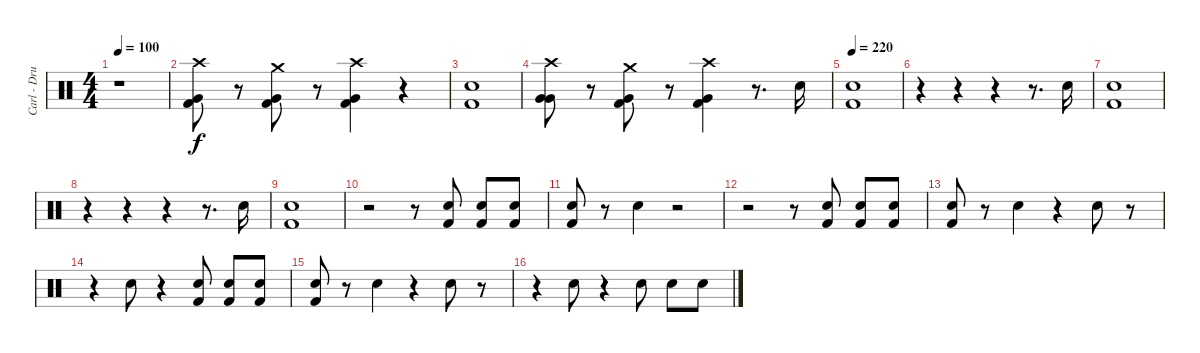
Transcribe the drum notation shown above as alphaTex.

\track ("Carl - Drums" "Carl - Dru") {instrument percussion}
\staff {score}
\articulation defaults
\ts (4 4)
\tempo 100
\tempo 140
\tempo 100
\clef neutral
\ks c
r.1{dy f} |
("Crash high (hit)" "Very Low Tom (hit)" "Kick (hit) 2").8 r.8 ("Crash medium (hit)" "Very Low Tom (hit)" "Kick (hit) 2").8 r.8 ("Crash high (hit)" "Very Low Tom (hit)" "Kick (hit) 2").4 r.4 |
("Electric Snare (hit)" "Kick (hit) 2").1 |
("Crash high (hit)" "Very Low Tom (hit)" "Very Low Tom (hit)").8 r.8 ("Crash medium (hit)" "Very Low Tom (hit)" "Kick (hit) 2").8 r.8 ("Crash high (hit)" "Very Low Tom (hit)" "Kick (hit) 2").4 r.8{d} "Electric Snare (hit)".16 |
\tempo 220
("Electric Snare (hit)" "Kick (hit) 2").1 |
r.4 r.4 r.4 r.8{d} "Electric Snare (hit)".16 |
("Electric Snare (hit)" "Kick (hit) 2").1 |
r.4 r.4 r.4 r.8{d} "Electric Snare (hit)".16 |
("Electric Snare (hit)" "Kick (hit) 2").1 |
r.2 r.8 ("Electric Snare (hit)" "Kick (hit) 2").8 ("Electric Snare (hit)" "Kick (hit) 2").8 ("Electric Snare (hit)" "Kick (hit) 2").8 |
("Electric Snare (hit)" "Kick (hit) 2").8 r.8 "Electric Snare (hit)".4 r.2 |
r.2 r.8 ("Electric Snare (hit)" "Kick (hit) 2").8 ("Electric Snare (hit)" "Kick (hit) 2").8 ("Electric Snare (hit)" "Kick (hit) 2").8 |
("Electric Snare (hit)" "Kick (hit) 2").8 r.8 "Electric Snare (hit)".4 r.4 "Electric Snare (hit)".8 r.8 |
r.4 "Electric Snare (hit)".8 r.4 ("Electric Snare (hit)" "Kick (hit) 2").8 ("Electric Snare (hit)" "Kick (hit) 2").8 ("Electric Snare (hit)" "Kick (hit) 2").8 |
("Electric Snare (hit)" "Kick (hit) 2").8 r.8 "Electric Snare (hit)".4 r.4 "Electric Snare (hit)".8 r.8 |
r.4 "Electric Snare (hit)".8 r.4 "Electric Snare (hit)".8 "Electric Snare (hit)".8 "Electric Snare (hit)".8
